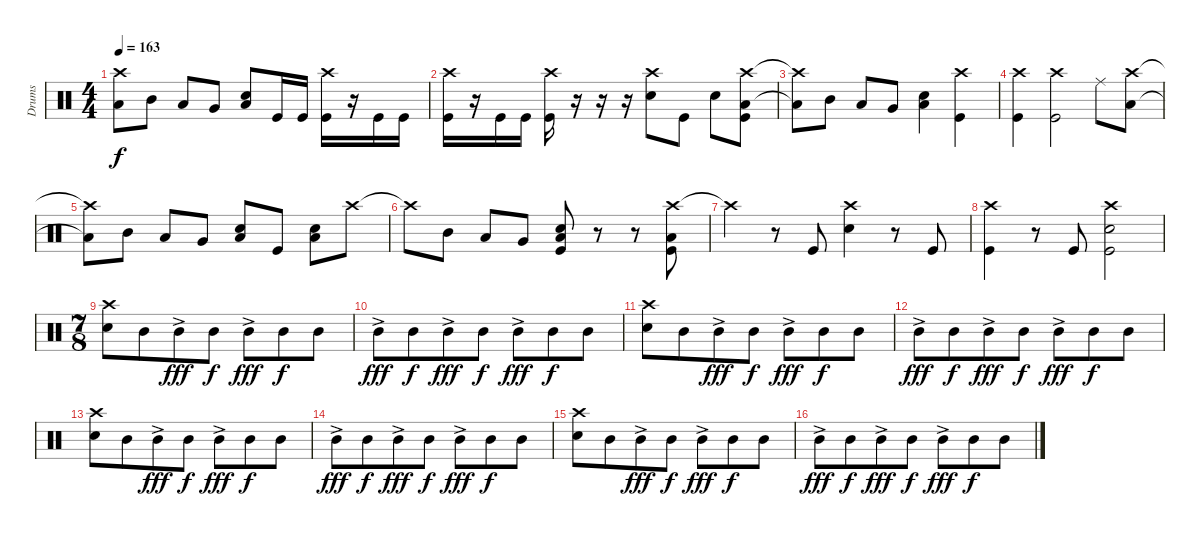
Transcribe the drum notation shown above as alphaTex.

\track ("Drums" "Drums") {instrument percussion}
\staff {score}
\articulation defaults
\ts (4 4)
\tempo 163
\clef neutral
\ks c
("Crash high (hit)"{t} "Low Floor Tom (hit)"{t}).8{dy f} "Mid Tom (hit)".8 "Low Tom (hit)".8 "Very Low Tom (hit)".8 ("Snare (hit) 2" "Low Floor Tom (hit)").8 "Kick (hit)".16 "Kick (hit)".16 ("Crash high (hit)" "Kick (hit)").16 r.16 "Kick (hit)".16 "Kick (hit)".16 |
("Crash high (hit)" "Kick (hit)").16 r.16 "Kick (hit)".16 "Kick (hit)".16 ("Crash high (hit)" "Kick (hit)").16 r.16 r.16 r.16 ("Crash high (hit)" "Snare (hit) 2").8 "Kick (hit)".8 "Snare (hit) 2".8 ("Crash high (hit)" "Low Floor Tom (hit)" "Kick (hit)").8 |
("Crash high (hit)"{t} "Low Floor Tom (hit)"{t}).8 "Mid Tom (hit)".8 "Low Tom (hit)".8 "Very Low Tom (hit)".8 ("Snare (hit) 2" "Low Floor Tom (hit)").4 ("Crash high (hit)" "Kick (hit)").4 |
("Crash high (hit)" "Kick (hit)").4 ("Crash high (hit)" "Kick (hit)").2 "Ride (middle)".8 ("Crash high (hit)" "Low Floor Tom (hit)").8 |
("Crash high (hit)"{t} "Low Floor Tom (hit)"{t}).8 "Mid Tom (hit)".8 "Low Tom (hit)".8 "Very Low Tom (hit)".8 ("Snare (hit) 2" "Low Floor Tom (hit)").8 "Kick (hit)".8 ("Snare (hit) 2" "Low Floor Tom (hit)").8 "Crash high (hit)".8 |
"Crash high (hit)"{t}.8 "Mid Tom (hit)".8 "Low Tom (hit)".8 "Very Low Tom (hit)".8 ("Snare (hit) 2" "Low Floor Tom (hit)" "Kick (hit)").8 r.8 r.8 ("Crash high (hit)" "Low Floor Tom (hit)" "Kick (hit)").8 |
"Crash high (hit)"{t}.4 r.8 "Kick (hit)".8 ("Crash high (hit)" "Snare (hit) 2").4 r.8 "Kick (hit)".8 |
("Crash high (hit)" "Kick (hit)").4 r.8 "Kick (hit)".8 ("Crash high (hit)" "Snare (hit) 2" "Kick (hit)").2 |
\ts (7 8)
("Crash high (hit)" "Snare (hit) 2").8 "Mid Tom (hit)".8 "Mid Tom (hit)"{ac}.8{dy fff} "Mid Tom (hit)".8{dy f} "Mid Tom (hit)"{ac}.8{dy fff} "Mid Tom (hit)".8{dy f} "Mid Tom (hit)".8 |
"Mid Tom (hit)"{ac}.8{dy fff} "Mid Tom (hit)".8{dy f} "Mid Tom (hit)"{ac}.8{dy fff} "Mid Tom (hit)".8{dy f} "Mid Tom (hit)"{ac}.8{dy fff} "Mid Tom (hit)".8{dy f} "Mid Tom (hit)".8 |
("Crash high (hit)" "Snare (hit) 2").8 "Mid Tom (hit)".8 "Mid Tom (hit)"{ac}.8{dy fff} "Mid Tom (hit)".8{dy f} "Mid Tom (hit)"{ac}.8{dy fff} "Mid Tom (hit)".8{dy f} "Mid Tom (hit)".8 |
"Mid Tom (hit)"{ac}.8{dy fff} "Mid Tom (hit)".8{dy f} "Mid Tom (hit)"{ac}.8{dy fff} "Mid Tom (hit)".8{dy f} "Mid Tom (hit)"{ac}.8{dy fff} "Mid Tom (hit)".8{dy f} "Mid Tom (hit)".8 |
("Crash high (hit)" "Snare (hit) 2").8 "Mid Tom (hit)".8 "Mid Tom (hit)"{ac}.8{dy fff} "Mid Tom (hit)".8{dy f} "Mid Tom (hit)"{ac}.8{dy fff} "Mid Tom (hit)".8{dy f} "Mid Tom (hit)".8 |
"Mid Tom (hit)"{ac}.8{dy fff} "Mid Tom (hit)".8{dy f} "Mid Tom (hit)"{ac}.8{dy fff} "Mid Tom (hit)".8{dy f} "Mid Tom (hit)"{ac}.8{dy fff} "Mid Tom (hit)".8{dy f} "Mid Tom (hit)".8 |
("Crash high (hit)" "Snare (hit) 2").8 "Mid Tom (hit)".8 "Mid Tom (hit)"{ac}.8{dy fff} "Mid Tom (hit)".8{dy f} "Mid Tom (hit)"{ac}.8{dy fff} "Mid Tom (hit)".8{dy f} "Mid Tom (hit)".8 |
"Mid Tom (hit)"{ac}.8{dy fff} "Mid Tom (hit)".8{dy f} "Mid Tom (hit)"{ac}.8{dy fff} "Mid Tom (hit)".8{dy f} "Mid Tom (hit)"{ac}.8{dy fff} "Mid Tom (hit)".8{dy f} "Mid Tom (hit)".8
